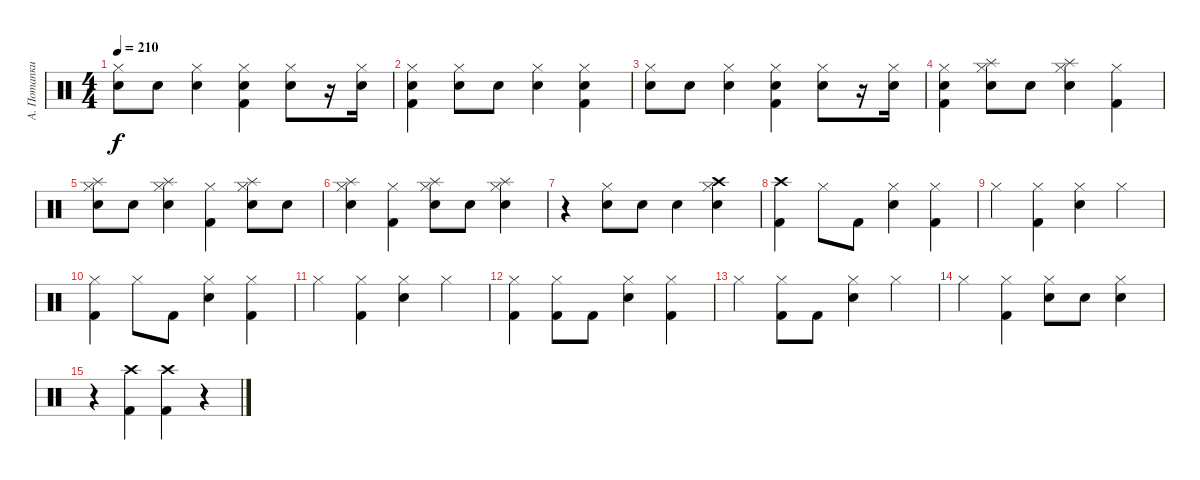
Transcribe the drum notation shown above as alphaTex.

\track ("А. Потапкин" "А. Потапки") {instrument percussion}
\staff {score}
\articulation defaults
\ts (4 4)
\tempo 210
\clef neutral
\ks c
("Hi-Hat (closed)" "Electric Snare (hit)").8{dy f} "Electric Snare (hit)".8 ("Hi-Hat (closed)" "Electric Snare (hit)").4 ("Hi-Hat (closed)" "Electric Snare (hit)" "Kick (hit) 2").4 ("Hi-Hat (closed)" "Electric Snare (hit)").8 r.16 ("Hi-Hat (closed)" "Electric Snare (hit)").16 |
("Hi-Hat (closed)" "Electric Snare (hit)" "Kick (hit) 2").4 ("Hi-Hat (closed)" "Electric Snare (hit)").8 "Electric Snare (hit)".8 ("Hi-Hat (closed)" "Electric Snare (hit)").4 ("Hi-Hat (closed)" "Electric Snare (hit)" "Kick (hit) 2").4 |
("Hi-Hat (closed)" "Electric Snare (hit)").8 "Electric Snare (hit)".8 ("Hi-Hat (closed)" "Electric Snare (hit)").4 ("Hi-Hat (closed)" "Electric Snare (hit)" "Kick (hit) 2").4 ("Hi-Hat (closed)" "Electric Snare (hit)").8 r.16 ("Hi-Hat (closed)" "Electric Snare (hit)").16 |
("Hi-Hat (closed)" "Electric Snare (hit)" "Kick (hit) 2").4 ("Hi-Hat (closed)" "Splash (hit)" "Electric Snare (hit)").8 "Electric Snare (hit)".8 ("Hi-Hat (closed)" "Splash (hit)" "Electric Snare (hit)").4 ("Hi-Hat (closed)" "Kick (hit) 2").4 |
("Hi-Hat (closed)" "Splash (hit)" "Electric Snare (hit)").8 "Electric Snare (hit)".8 ("Hi-Hat (closed)" "Splash (hit)" "Electric Snare (hit)").4 ("Hi-Hat (closed)" "Kick (hit) 2").4 ("Hi-Hat (closed)" "Splash (hit)" "Electric Snare (hit)").8 "Electric Snare (hit)".8 |
("Hi-Hat (closed)" "Splash (hit)" "Electric Snare (hit)").4 ("Hi-Hat (closed)" "Kick (hit) 2").4 ("Hi-Hat (closed)" "Splash (hit)" "Electric Snare (hit)").8 "Electric Snare (hit)".8 ("Hi-Hat (closed)" "Splash (hit)" "Electric Snare (hit)").4 |
r.4 ("Hi-Hat (closed)" "Electric Snare (hit)").8 "Electric Snare (hit)".8 "Electric Snare (hit)".4 ("Crash high (hit)" "Hi-Hat (closed)" "Electric Snare (hit)").4 |
("Crash high (hit)" "Kick (hit) 2").4 "Hi-Hat (closed)".8 "Kick (hit) 2".8 ("Hi-Hat (closed)" "Snare (hit) 2").4 ("Hi-Hat (closed)" "Kick (hit) 2").4 |
"Hi-Hat (closed)".4 ("Hi-Hat (closed)" "Kick (hit) 2").4 ("Hi-Hat (closed)" "Snare (hit) 2").4 "Hi-Hat (closed)".4 |
("Hi-Hat (closed)" "Kick (hit) 2").4 "Hi-Hat (closed)".8 "Kick (hit) 2".8 ("Hi-Hat (closed)" "Snare (hit) 2").4 ("Hi-Hat (closed)" "Kick (hit) 2").4 |
"Hi-Hat (closed)".4 ("Hi-Hat (closed)" "Kick (hit) 2").4 ("Hi-Hat (closed)" "Snare (hit) 2").4 "Hi-Hat (closed)".4 |
("Hi-Hat (closed)" "Kick (hit) 2").4 ("Hi-Hat (closed)" "Kick (hit) 2").8 "Kick (hit) 2".8 ("Hi-Hat (closed)" "Snare (hit) 2").4 ("Hi-Hat (closed)" "Kick (hit) 2").4 |
"Hi-Hat (closed)".4 ("Hi-Hat (closed)" "Kick (hit) 2").8 "Kick (hit) 2".8 ("Hi-Hat (closed)" "Snare (hit) 2").4 "Hi-Hat (closed)".4 |
"Hi-Hat (closed)".4 ("Hi-Hat (closed)" "Kick (hit) 2").4 ("Hi-Hat (closed)" "Snare (hit) 2").8 "Snare (hit) 2".8 ("Hi-Hat (closed)" "Snare (hit) 2").4 |
r.4 ("Crash high (hit)" "Kick (hit) 2").4 ("Crash high (hit)" "Kick (hit) 2").4 r.4
